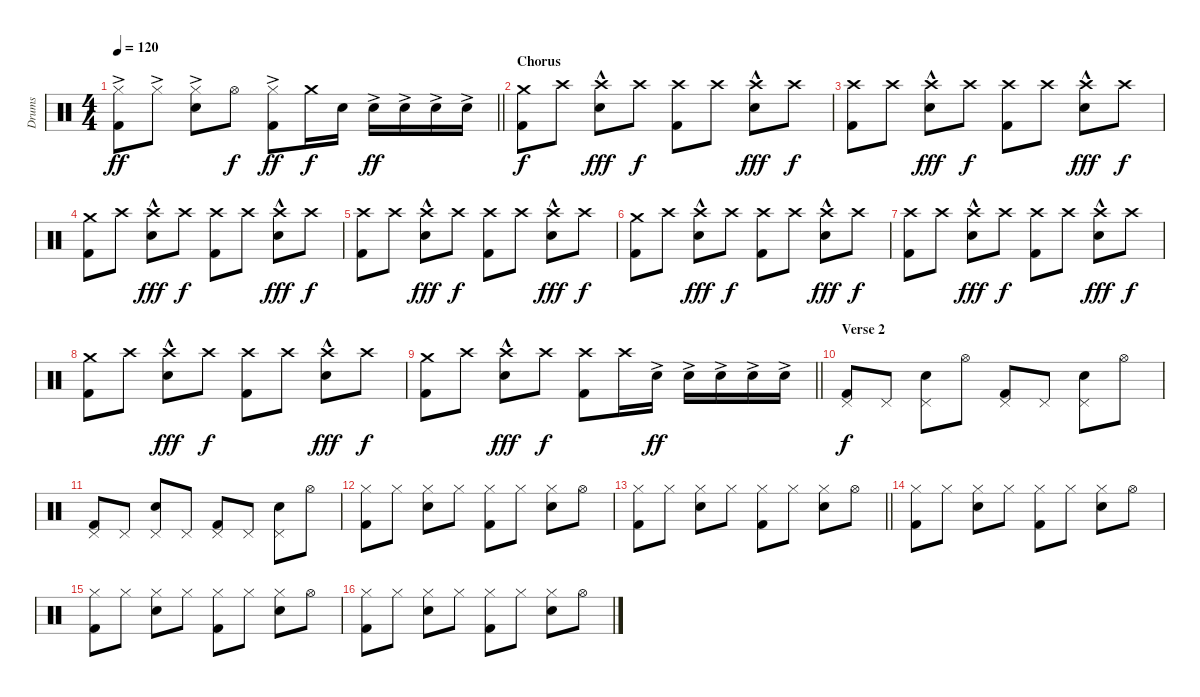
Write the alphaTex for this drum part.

\track ("Drums" "Drums") {instrument percussion}
\staff {score}
\articulation defaults
\ts (4 4)
\tempo 120
\clef neutral
\barLineRight lightlight
\ks c
("Hi-Hat (closed)"{ac} "Kick (hit) 2").8{dy ff} "Hi-Hat (closed)"{ac}.8 ("Hi-Hat (closed)"{ac} "Electric Snare (hit)").8 "Hi-Hat (open)".8{dy f} ("Hi-Hat (closed)"{ac} "Kick (hit) 2").8{dy ff} "Crash medium (hit)".16{dy f} "Electric Snare (hit)".16 "Electric Snare (hit)"{ac}.16{dy ff} "Electric Snare (hit)"{ac}.16 "Electric Snare (hit)"{ac}.16 "Electric Snare (hit)"{ac}.16 |
\section ("" "Chorus")
("Crash medium (hit)" "Kick (hit) 2").8{dy f volume 14} "Crash high (hit)".8 ("Crash high (hit)" "Electric Snare (hit)"{hac}).8{dy fff} "Crash high (hit)".8{dy f} ("Crash high (hit)" "Kick (hit) 2").8 "Crash high (hit)".8 ("Crash high (hit)" "Electric Snare (hit)"{hac}).8{dy fff} "Crash high (hit)".8{dy f} |
("Crash high (hit)" "Kick (hit) 2").8 "Crash high (hit)".8 ("Crash high (hit)" "Electric Snare (hit)"{hac}).8{dy fff} "Crash high (hit)".8{dy f} ("Crash high (hit)" "Kick (hit) 2").8 "Crash high (hit)".8 ("Crash high (hit)" "Electric Snare (hit)"{hac}).8{dy fff} "Crash high (hit)".8{dy f} |
("Crash medium (hit)" "Kick (hit) 2").8 "Crash high (hit)".8 ("Crash high (hit)" "Electric Snare (hit)"{hac}).8{dy fff} "Crash high (hit)".8{dy f} ("Crash high (hit)" "Kick (hit) 2").8 "Crash high (hit)".8 ("Crash high (hit)" "Electric Snare (hit)"{hac}).8{dy fff} "Crash high (hit)".8{dy f} |
("Crash high (hit)" "Kick (hit) 2").8 "Crash high (hit)".8 ("Crash high (hit)" "Electric Snare (hit)"{hac}).8{dy fff} "Crash high (hit)".8{dy f} ("Crash high (hit)" "Kick (hit) 2").8 "Crash high (hit)".8 ("Crash high (hit)" "Electric Snare (hit)"{hac}).8{dy fff} "Crash high (hit)".8{dy f} |
("Crash medium (hit)" "Kick (hit) 2").8 "Crash high (hit)".8 ("Crash high (hit)" "Electric Snare (hit)"{hac}).8{dy fff} "Crash high (hit)".8{dy f} ("Crash high (hit)" "Kick (hit) 2").8 "Crash high (hit)".8 ("Crash high (hit)" "Electric Snare (hit)"{hac}).8{dy fff} "Crash high (hit)".8{dy f} |
("Crash high (hit)" "Kick (hit) 2").8 "Crash high (hit)".8 ("Crash high (hit)" "Electric Snare (hit)"{hac}).8{dy fff} "Crash high (hit)".8{dy f} ("Crash high (hit)" "Kick (hit) 2").8 "Crash high (hit)".8 ("Crash high (hit)" "Electric Snare (hit)"{hac}).8{dy fff} "Crash high (hit)".8{dy f} |
("Crash medium (hit)" "Kick (hit) 2").8 "Crash high (hit)".8 ("Crash high (hit)" "Electric Snare (hit)"{hac}).8{dy fff} "Crash high (hit)".8{dy f} ("Crash high (hit)" "Kick (hit) 2").8 "Crash high (hit)".8 ("Crash high (hit)" "Electric Snare (hit)"{hac}).8{dy fff} "Crash high (hit)".8{dy f} |
\barLineRight lightlight
("Crash medium (hit)" "Kick (hit) 2").8 "Crash high (hit)".8 ("Crash high (hit)" "Electric Snare (hit)"{hac}).8{dy fff} "Crash high (hit)".8{dy f} ("Crash high (hit)" "Kick (hit) 2").8 "Crash high (hit)".16 "Electric Snare (hit)"{ac}.16{dy ff} "Electric Snare (hit)"{ac}.16 "Electric Snare (hit)"{ac}.16 "Electric Snare (hit)"{ac}.16 "Electric Snare (hit)"{ac}.16 |
\section ("" "Verse 2")
("Pedal Hi-Hat (hit)" "Kick (hit) 2").8{dy f volume 13} "Pedal Hi-Hat (hit)".8 ("Pedal Hi-Hat (hit)" "Electric Snare (hit)").8 "Hi-Hat (open)".8 ("Pedal Hi-Hat (hit)" "Kick (hit) 2").8 "Pedal Hi-Hat (hit)".8 ("Pedal Hi-Hat (hit)" "Electric Snare (hit)").8 "Hi-Hat (open)".8 |
("Pedal Hi-Hat (hit)" "Kick (hit) 2").8 "Pedal Hi-Hat (hit)".8 ("Pedal Hi-Hat (hit)" "Electric Snare (hit)").8 "Pedal Hi-Hat (hit)".8 ("Pedal Hi-Hat (hit)" "Kick (hit) 2").8 "Pedal Hi-Hat (hit)".8 ("Pedal Hi-Hat (hit)" "Electric Snare (hit)").8 "Hi-Hat (open)".8 |
("Hi-Hat (closed)" "Kick (hit) 2").8 "Hi-Hat (closed)".8 ("Hi-Hat (closed)" "Electric Snare (hit)").8 "Hi-Hat (closed)".8 ("Hi-Hat (closed)" "Kick (hit) 2").8 "Hi-Hat (closed)".8 ("Hi-Hat (closed)" "Electric Snare (hit)").8 "Hi-Hat (open)".8 |
\barLineRight lightlight
("Hi-Hat (closed)" "Kick (hit) 2").8 "Hi-Hat (closed)".8 ("Hi-Hat (closed)" "Electric Snare (hit)").8 "Hi-Hat (closed)".8 ("Hi-Hat (closed)" "Kick (hit) 2").8 "Hi-Hat (closed)".8 ("Hi-Hat (closed)" "Electric Snare (hit)").8 "Hi-Hat (open)".8 |
("Hi-Hat (closed)" "Kick (hit) 2").8 "Hi-Hat (closed)".8 ("Hi-Hat (closed)" "Electric Snare (hit)").8 "Hi-Hat (closed)".8 ("Hi-Hat (closed)" "Kick (hit) 2").8 "Hi-Hat (closed)".8 ("Hi-Hat (closed)" "Electric Snare (hit)").8 "Hi-Hat (open)".8 |
("Hi-Hat (closed)" "Kick (hit) 2").8 "Hi-Hat (closed)".8 ("Hi-Hat (closed)" "Electric Snare (hit)").8 "Hi-Hat (closed)".8 ("Hi-Hat (closed)" "Kick (hit) 2").8 "Hi-Hat (closed)".8 ("Hi-Hat (closed)" "Electric Snare (hit)").8 "Hi-Hat (open)".8 |
("Hi-Hat (closed)" "Kick (hit) 2").8 "Hi-Hat (closed)".8 ("Hi-Hat (closed)" "Electric Snare (hit)").8 "Hi-Hat (closed)".8 ("Hi-Hat (closed)" "Kick (hit) 2").8 "Hi-Hat (closed)".8 ("Hi-Hat (closed)" "Electric Snare (hit)").8 "Hi-Hat (open)".8
